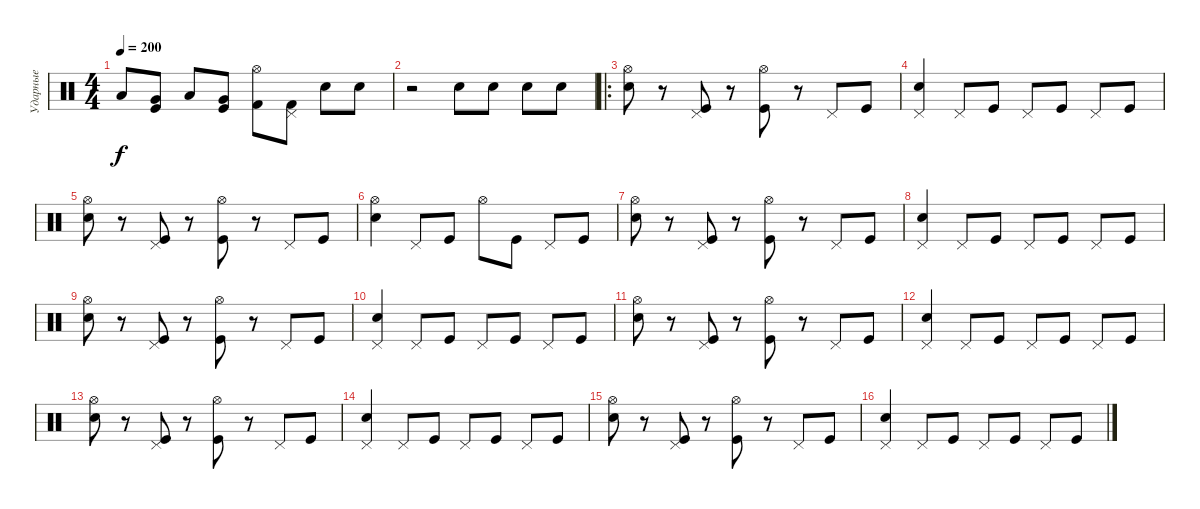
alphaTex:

\track ("Ударные" "Ударные") {instrument percussion}
\staff {score}
\articulation defaults
\ts (4 4)
\tempo 200
\clef neutral
\ks c "Low Tom (hit)".8{dy f}
("Very Low Tom (hit)" "Kick (hit)").8 "Low Floor Tom (hit)".8 ("Very Low Tom (hit)" "Kick (hit)").8 ("Hi-Hat (open)" "Kick (hit) 2").8 ("Pedal Hi-Hat (hit)" "Kick (hit) 2").8 "Electric Snare (hit)".8 "Electric Snare (hit)".8 |
r.2 "Electric Snare (hit)".8 "Electric Snare (hit)".8 "Electric Snare (hit)".8 "Electric Snare (hit)".8 |
\ro
("Hi-Hat (open)" "Electric Snare (hit)").8 r.8 ("Pedal Hi-Hat (hit)" "Kick (hit)").8 r.8 ("Hi-Hat (open)" "Kick (hit)").8 r.8 "Pedal Hi-Hat (hit)".8 "Kick (hit)".8 |
("Pedal Hi-Hat (hit)" "Electric Snare (hit)").4 "Pedal Hi-Hat (hit)".8 "Kick (hit)".8 "Pedal Hi-Hat (hit)".8 "Kick (hit)".8 "Pedal Hi-Hat (hit)".8 "Kick (hit)".8 |
("Hi-Hat (open)" "Electric Snare (hit)").8 r.8 ("Pedal Hi-Hat (hit)" "Kick (hit)").8 r.8 ("Hi-Hat (open)" "Kick (hit)").8 r.8 "Pedal Hi-Hat (hit)".8 "Kick (hit)".8 |
("Hi-Hat (open)" "Electric Snare (hit)").4 "Pedal Hi-Hat (hit)".8 "Kick (hit)".8 "Hi-Hat (open)".8 "Kick (hit)".8 "Pedal Hi-Hat (hit)".8 "Kick (hit)".8 |
("Hi-Hat (open)" "Electric Snare (hit)").8 r.8 ("Pedal Hi-Hat (hit)" "Kick (hit)").8 r.8 ("Hi-Hat (open)" "Kick (hit)").8 r.8 "Pedal Hi-Hat (hit)".8 "Kick (hit)".8 |
("Pedal Hi-Hat (hit)" "Electric Snare (hit)").4 "Pedal Hi-Hat (hit)".8 "Kick (hit)".8 "Pedal Hi-Hat (hit)".8 "Kick (hit)".8 "Pedal Hi-Hat (hit)".8 "Kick (hit)".8 |
("Hi-Hat (open)" "Electric Snare (hit)").8 r.8 ("Pedal Hi-Hat (hit)" "Kick (hit)").8 r.8 ("Hi-Hat (open)" "Kick (hit)").8 r.8 "Pedal Hi-Hat (hit)".8 "Kick (hit)".8 |
("Pedal Hi-Hat (hit)" "Electric Snare (hit)").4 "Pedal Hi-Hat (hit)".8 "Kick (hit)".8 "Pedal Hi-Hat (hit)".8 "Kick (hit)".8 "Pedal Hi-Hat (hit)".8 "Kick (hit)".8 |
("Hi-Hat (open)" "Electric Snare (hit)").8 r.8 ("Pedal Hi-Hat (hit)" "Kick (hit)").8 r.8 ("Hi-Hat (open)" "Kick (hit)").8 r.8 "Pedal Hi-Hat (hit)".8 "Kick (hit)".8 |
("Pedal Hi-Hat (hit)" "Electric Snare (hit)").4 "Pedal Hi-Hat (hit)".8 "Kick (hit)".8 "Pedal Hi-Hat (hit)".8 "Kick (hit)".8 "Pedal Hi-Hat (hit)".8 "Kick (hit)".8 |
("Hi-Hat (open)" "Electric Snare (hit)").8 r.8 ("Pedal Hi-Hat (hit)" "Kick (hit)").8 r.8 ("Hi-Hat (open)" "Kick (hit)").8 r.8 "Pedal Hi-Hat (hit)".8 "Kick (hit)".8 |
("Pedal Hi-Hat (hit)" "Electric Snare (hit)").4 "Pedal Hi-Hat (hit)".8 "Kick (hit)".8 "Pedal Hi-Hat (hit)".8 "Kick (hit)".8 "Pedal Hi-Hat (hit)".8 "Kick (hit)".8 |
("Hi-Hat (open)" "Electric Snare (hit)").8 r.8 ("Pedal Hi-Hat (hit)" "Kick (hit)").8 r.8 ("Hi-Hat (open)" "Kick (hit)").8 r.8 "Pedal Hi-Hat (hit)".8 "Kick (hit)".8 |
("Pedal Hi-Hat (hit)" "Electric Snare (hit)").4 "Pedal Hi-Hat (hit)".8 "Kick (hit)".8 "Pedal Hi-Hat (hit)".8 "Kick (hit)".8 "Pedal Hi-Hat (hit)".8 "Kick (hit)".8
